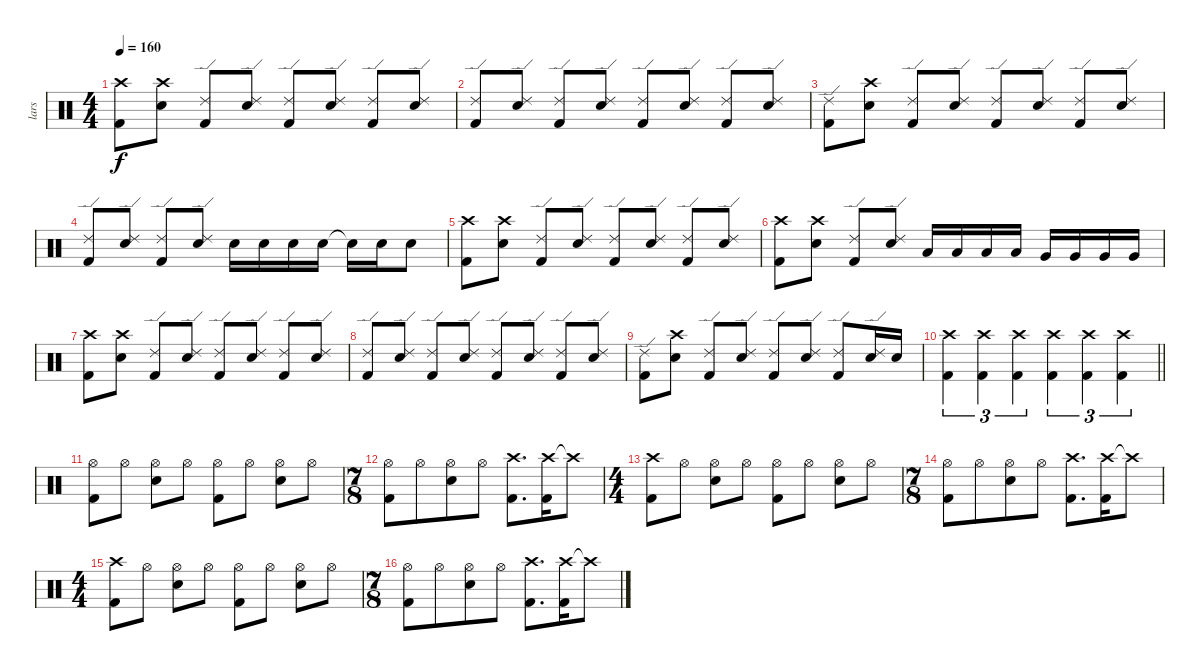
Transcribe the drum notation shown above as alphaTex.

\track ("lars" "lars") {instrument percussion}
\staff {score}
\articulation defaults
\ts (4 4)
\tempo 160
\clef neutral
\ks c
("Crash high (hit)" "Kick (hit) 2").8{dy f} ("Crash high (hit)" "Electric Snare (hit)").8 ("Ride (edge) 2" "Kick (hit) 2").8 ("Ride (edge) 2" "Electric Snare (hit)").8 ("Ride (edge) 2" "Kick (hit) 2").8 ("Ride (edge) 2" "Electric Snare (hit)").8 ("Ride (edge) 2" "Kick (hit) 2").8 ("Ride (edge) 2" "Electric Snare (hit)").8 |
("Ride (edge) 2" "Kick (hit) 2").8 ("Ride (edge) 2" "Electric Snare (hit)").8 ("Ride (edge) 2" "Kick (hit) 2").8 ("Ride (edge) 2" "Electric Snare (hit)").8 ("Ride (edge) 2" "Kick (hit) 2").8 ("Ride (edge) 2" "Electric Snare (hit)").8 ("Ride (edge) 2" "Kick (hit) 2").8 ("Ride (edge) 2" "Electric Snare (hit)").8 |
("Ride (edge) 2" "Kick (hit) 2").8 ("Crash high (hit)" "Electric Snare (hit)").8 ("Ride (edge) 2" "Kick (hit) 2").8 ("Ride (edge) 2" "Electric Snare (hit)").8 ("Ride (edge) 2" "Kick (hit) 2").8 ("Ride (edge) 2" "Electric Snare (hit)").8 ("Ride (edge) 2" "Kick (hit) 2").8 ("Ride (edge) 2" "Electric Snare (hit)").8 |
("Ride (edge) 2" "Kick (hit) 2").8 ("Ride (edge) 2" "Electric Snare (hit)").8 ("Ride (edge) 2" "Kick (hit) 2").8 ("Ride (edge) 2" "Electric Snare (hit)").8 "Electric Snare (hit)".16 "Electric Snare (hit)".16 "Electric Snare (hit)".16 "Electric Snare (hit)".16 "Snare (hit)"{t}.16 "Electric Snare (hit)".16 "Electric Snare (hit)".8 |
("Crash high (hit)" "Kick (hit) 2").8 ("Crash high (hit)" "Electric Snare (hit)").8 ("Ride (edge) 2" "Kick (hit) 2").8 ("Ride (edge) 2" "Electric Snare (hit)").8 ("Ride (edge) 2" "Kick (hit) 2").8 ("Ride (edge) 2" "Electric Snare (hit)").8 ("Ride (edge) 2" "Kick (hit) 2").8 ("Ride (edge) 2" "Electric Snare (hit)").8 |
("Crash high (hit)" "Kick (hit) 2").8 ("Crash high (hit)" "Electric Snare (hit)").8 ("Ride (edge) 2" "Kick (hit) 2").8 ("Ride (edge) 2" "Electric Snare (hit)").8 "Low Tom (hit)".16 "Low Tom (hit)".16 "Low Tom (hit)".16 "Low Tom (hit)".16 "Very Low Tom (hit)".16 "Very Low Tom (hit)".16 "Very Low Tom (hit)".16 "Very Low Tom (hit)".16 |
("Crash high (hit)" "Kick (hit) 2").8 ("Crash high (hit)" "Electric Snare (hit)").8 ("Ride (edge) 2" "Kick (hit) 2").8 ("Ride (edge) 2" "Electric Snare (hit)").8 ("Ride (edge) 2" "Kick (hit) 2").8 ("Ride (edge) 2" "Electric Snare (hit)").8 ("Ride (edge) 2" "Kick (hit) 2").8 ("Ride (edge) 2" "Electric Snare (hit)").8 |
("Ride (edge) 2" "Kick (hit) 2").8 ("Ride (edge) 2" "Electric Snare (hit)").8 ("Ride (edge) 2" "Kick (hit) 2").8 ("Ride (edge) 2" "Electric Snare (hit)").8 ("Ride (edge) 2" "Kick (hit) 2").8 ("Ride (edge) 2" "Electric Snare (hit)").8 ("Ride (edge) 2" "Kick (hit) 2").8 ("Ride (edge) 2" "Electric Snare (hit)").8 |
("Ride (edge) 2" "Kick (hit) 2").8 ("Crash high (hit)" "Electric Snare (hit)").8 ("Ride (edge) 2" "Kick (hit) 2").8 ("Ride (edge) 2" "Electric Snare (hit)").8 ("Ride (edge) 2" "Kick (hit) 2").8 ("Ride (edge) 2" "Electric Snare (hit)").8 ("Ride (edge) 2" "Kick (hit) 2").8 ("Ride (edge) 2" "Electric Snare (hit)").16 "Electric Snare (hit)".16 |
\barLineRight lightlight
("Crash high (hit)" "Kick (hit) 2").4{tu (3 2)} ("Crash high (hit)" "Kick (hit) 2").4{tu (3 2)} ("Crash high (hit)" "Kick (hit) 2").4{tu (3 2)} ("Crash high (hit)" "Kick (hit) 2").4{tu (3 2)} ("Crash high (hit)" "Kick (hit) 2").4{tu (3 2)} ("Crash high (hit)" "Kick (hit) 2").4{tu (3 2)} |
("Hi-Hat (open)" "Kick (hit) 2").8 "Hi-Hat (open)".8 ("Hi-Hat (open)" "Electric Snare (hit)").8 "Hi-Hat (open)".8 ("Hi-Hat (open)" "Kick (hit) 2").8 "Hi-Hat (open)".8 ("Hi-Hat (open)" "Electric Snare (hit)").8 "Hi-Hat (open)".8 |
\ts (7 8)
("Hi-Hat (open)" "Kick (hit) 2").8 "Hi-Hat (open)".8 ("Hi-Hat (open)" "Electric Snare (hit)").8 "Hi-Hat (open)".8 ("Crash high (hit)" "Kick (hit) 2").8{d} ("Crash high (hit)" "Kick (hit) 2").16 "Crash high (hit)"{t}.8 |
\ts (4 4)
("Crash high (hit)" "Kick (hit) 2").8 "Hi-Hat (open)".8 ("Hi-Hat (open)" "Electric Snare (hit)").8 "Hi-Hat (open)".8 ("Hi-Hat (open)" "Kick (hit) 2").8 "Hi-Hat (open)".8 ("Hi-Hat (open)" "Electric Snare (hit)").8 "Hi-Hat (open)".8 |
\ts (7 8)
("Hi-Hat (open)" "Kick (hit) 2").8 "Hi-Hat (open)".8 ("Hi-Hat (open)" "Electric Snare (hit)").8 "Hi-Hat (open)".8 ("Crash high (hit)" "Kick (hit) 2").8{d} ("Crash high (hit)" "Kick (hit) 2").16 "Crash high (hit)"{t}.8 |
\ts (4 4)
("Crash high (hit)" "Kick (hit) 2").8 "Hi-Hat (open)".8 ("Hi-Hat (open)" "Electric Snare (hit)").8 "Hi-Hat (open)".8 ("Hi-Hat (open)" "Kick (hit) 2").8 "Hi-Hat (open)".8 ("Hi-Hat (open)" "Electric Snare (hit)").8 "Hi-Hat (open)".8 |
\ts (7 8)
("Hi-Hat (open)" "Kick (hit) 2").8 "Hi-Hat (open)".8 ("Hi-Hat (open)" "Electric Snare (hit)").8 "Hi-Hat (open)".8 ("Crash high (hit)" "Kick (hit) 2").8{d} ("Crash high (hit)" "Kick (hit) 2").16 "Crash high (hit)"{t}.8
